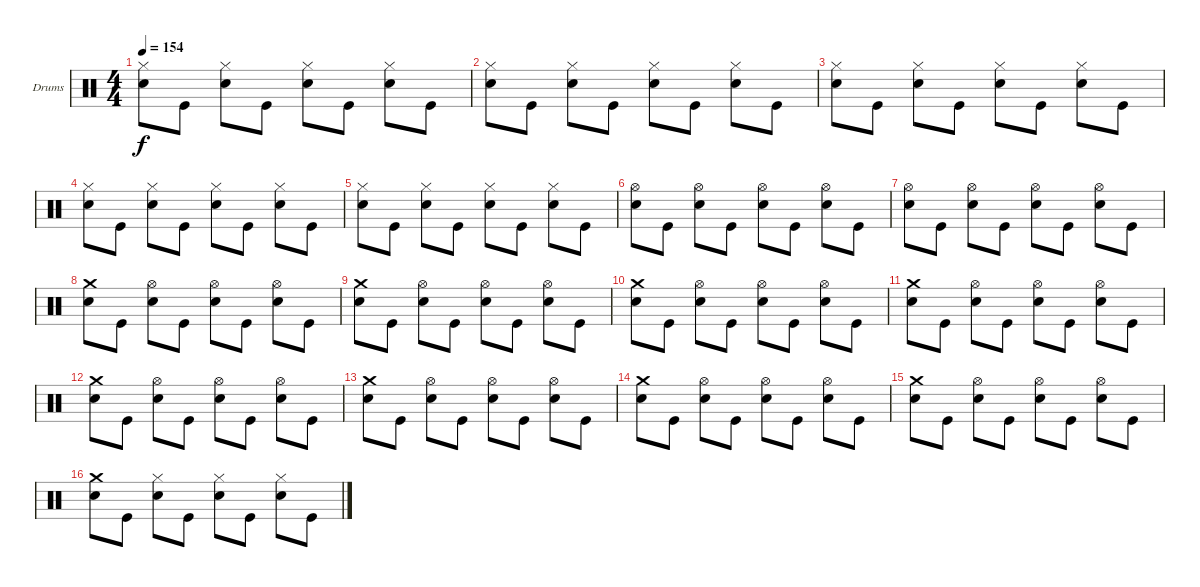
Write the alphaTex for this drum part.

\defaultSystemsLayout 4
\bracketExtendMode groupsimilarinstruments
\firstSystemTrackNameOrientation horizontal
\otherSystemsTrackNameOrientation horizontal
\track ("Drumkit" "Drums") {instrument percussion}
\staff {score}
\articulation defaults
\ts (4 4)
\tempo 154
\clef neutral
\ks c
("Hi-Hat (closed)" "Snare (hit) 2").8{dy f} "Kick (hit)".8 ("Hi-Hat (closed)" "Snare (hit) 2").8 "Kick (hit)".8 ("Hi-Hat (closed)" "Snare (hit) 2").8 "Kick (hit)".8 ("Hi-Hat (closed)" "Snare (hit) 2").8 "Kick (hit)".8 |
("Hi-Hat (closed)" "Snare (hit) 2").8 "Kick (hit)".8 ("Hi-Hat (closed)" "Snare (hit) 2").8 "Kick (hit)".8 ("Hi-Hat (closed)" "Snare (hit) 2").8 "Kick (hit)".8 ("Hi-Hat (closed)" "Snare (hit) 2").8 "Kick (hit)".8 |
("Hi-Hat (closed)" "Snare (hit) 2").8 "Kick (hit)".8 ("Hi-Hat (closed)" "Snare (hit) 2").8 "Kick (hit)".8 ("Hi-Hat (closed)" "Snare (hit) 2").8 "Kick (hit)".8 ("Hi-Hat (closed)" "Snare (hit) 2").8 "Kick (hit)".8 |
("Hi-Hat (closed)" "Snare (hit) 2").8 "Kick (hit)".8 ("Hi-Hat (closed)" "Snare (hit) 2").8 "Kick (hit)".8 ("Hi-Hat (closed)" "Snare (hit) 2").8 "Kick (hit)".8 ("Hi-Hat (closed)" "Snare (hit) 2").8 "Kick (hit)".8 |
("Hi-Hat (closed)" "Snare (hit) 2").8 "Kick (hit)".8 ("Hi-Hat (closed)" "Snare (hit) 2").8 "Kick (hit)".8 ("Hi-Hat (closed)" "Snare (hit) 2").8 "Kick (hit)".8 ("Hi-Hat (closed)" "Snare (hit) 2").8 "Kick (hit)".8 |
("Hi-Hat (open)" "Snare (hit) 2").8 "Kick (hit)".8 ("Hi-Hat (open)" "Snare (hit) 2").8 "Kick (hit)".8 ("Hi-Hat (open)" "Snare (hit) 2").8 "Kick (hit)".8 ("Hi-Hat (open)" "Snare (hit) 2").8 "Kick (hit)".8 |
("Hi-Hat (open)" "Snare (hit) 2").8 "Kick (hit)".8 ("Hi-Hat (open)" "Snare (hit) 2").8 "Kick (hit)".8 ("Hi-Hat (open)" "Snare (hit) 2").8 "Kick (hit)".8 ("Hi-Hat (open)" "Snare (hit) 2").8 "Kick (hit)".8 |
("Crash medium (hit)" "Snare (hit) 2").8 "Kick (hit)".8 ("Hi-Hat (open)" "Snare (hit) 2").8 "Kick (hit)".8 ("Hi-Hat (open)" "Snare (hit) 2").8 "Kick (hit)".8 ("Hi-Hat (open)" "Snare (hit) 2").8 "Kick (hit)".8 |
("Crash medium (hit)" "Snare (hit) 2").8 "Kick (hit)".8 ("Hi-Hat (open)" "Snare (hit) 2").8 "Kick (hit)".8 ("Hi-Hat (open)" "Snare (hit) 2").8 "Kick (hit)".8 ("Hi-Hat (open)" "Snare (hit) 2").8 "Kick (hit)".8 |
("Crash medium (hit)" "Snare (hit) 2").8 "Kick (hit)".8 ("Hi-Hat (open)" "Snare (hit) 2").8 "Kick (hit)".8 ("Hi-Hat (open)" "Snare (hit) 2").8 "Kick (hit)".8 ("Hi-Hat (open)" "Snare (hit) 2").8 "Kick (hit)".8 |
("Crash medium (hit)" "Snare (hit) 2").8 "Kick (hit)".8 ("Hi-Hat (open)" "Snare (hit) 2").8 "Kick (hit)".8 ("Hi-Hat (open)" "Snare (hit) 2").8 "Kick (hit)".8 ("Hi-Hat (open)" "Snare (hit) 2").8 "Kick (hit)".8 |
("Crash medium (hit)" "Snare (hit) 2").8 "Kick (hit)".8 ("Hi-Hat (open)" "Snare (hit) 2").8 "Kick (hit)".8 ("Hi-Hat (open)" "Snare (hit) 2").8 "Kick (hit)".8 ("Hi-Hat (open)" "Snare (hit) 2").8 "Kick (hit)".8 |
("Crash medium (hit)" "Snare (hit) 2").8 "Kick (hit)".8 ("Hi-Hat (open)" "Snare (hit) 2").8 "Kick (hit)".8 ("Hi-Hat (open)" "Snare (hit) 2").8 "Kick (hit)".8 ("Hi-Hat (open)" "Snare (hit) 2").8 "Kick (hit)".8 |
("Crash medium (hit)" "Snare (hit) 2").8 "Kick (hit)".8 ("Hi-Hat (open)" "Snare (hit) 2").8 "Kick (hit)".8 ("Hi-Hat (open)" "Snare (hit) 2").8 "Kick (hit)".8 ("Hi-Hat (open)" "Snare (hit) 2").8 "Kick (hit)".8 |
("Crash medium (hit)" "Snare (hit) 2").8 "Kick (hit)".8 ("Hi-Hat (open)" "Snare (hit) 2").8 "Kick (hit)".8 ("Hi-Hat (open)" "Snare (hit) 2").8 "Kick (hit)".8 ("Hi-Hat (open)" "Snare (hit) 2").8 "Kick (hit)".8 |
("Crash medium (hit)" "Snare (hit) 2").8 "Kick (hit)".8 ("Hi-Hat (closed)" "Snare (hit) 2").8 "Kick (hit)".8 ("Hi-Hat (closed)" "Snare (hit) 2").8 "Kick (hit)".8 ("Hi-Hat (closed)" "Snare (hit) 2").8 "Kick (hit)".8
